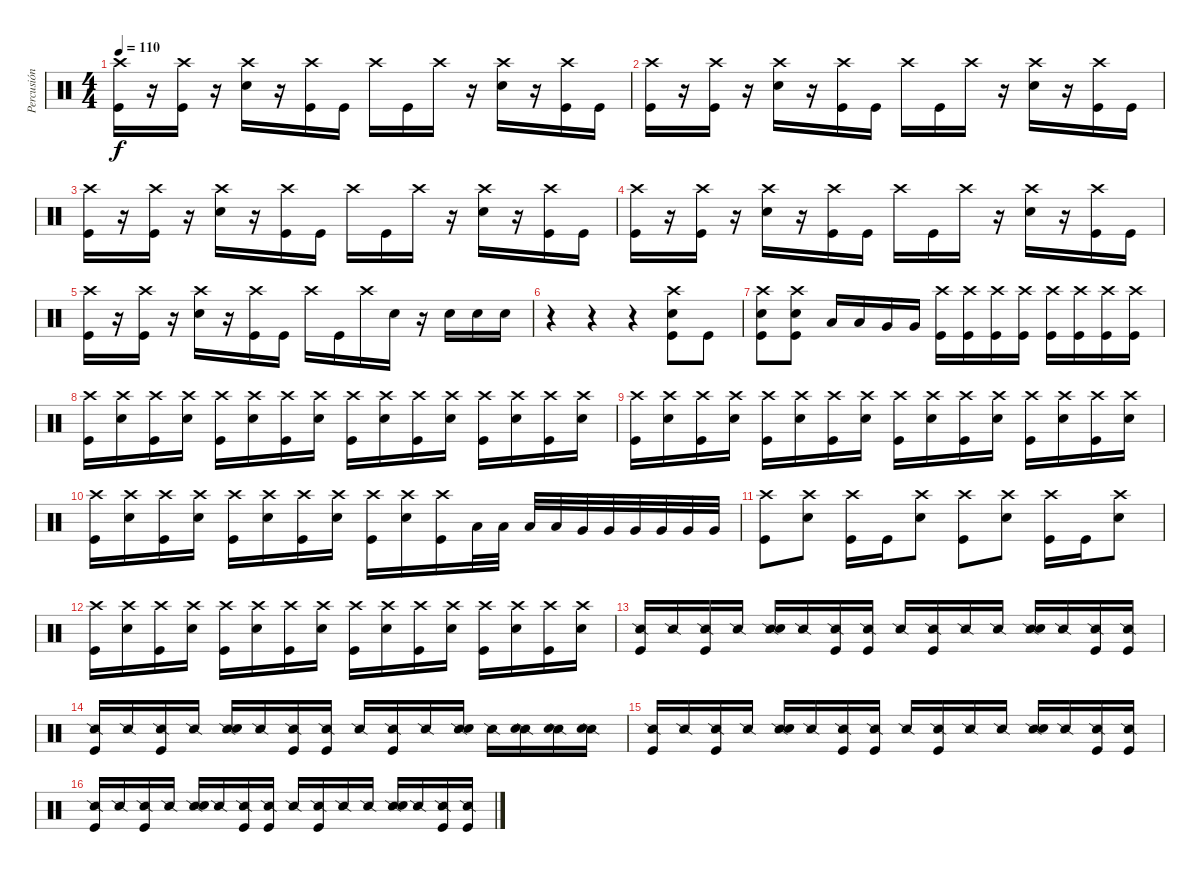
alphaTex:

\track ("Percusión" "Percusión") {instrument percussion}
\staff {score}
\articulation defaults
\ts (4 4)
\tempo 110
\clef neutral
\ks c
("Crash high (hit)" "Kick (hit)").16{dy f} r.16 ("Crash high (hit)" "Kick (hit)").16 r.16 ("Crash high (hit)" "Electric Snare (hit)").16 r.16 ("Crash high (hit)" "Kick (hit)").16 "Kick (hit)".16 "Crash high (hit)".16 "Kick (hit)".16 "Crash high (hit)".16 r.16 ("Crash high (hit)" "Electric Snare (hit)").16 r.16 ("Crash high (hit)" "Kick (hit)").16 "Kick (hit)".16 |
("Crash high (hit)" "Kick (hit)").16 r.16 ("Crash high (hit)" "Kick (hit)").16 r.16 ("Crash high (hit)" "Electric Snare (hit)").16 r.16 ("Crash high (hit)" "Kick (hit)").16 "Kick (hit)".16 "Crash high (hit)".16 "Kick (hit)".16 "Crash high (hit)".16 r.16 ("Crash high (hit)" "Electric Snare (hit)").16 r.16 ("Crash high (hit)" "Kick (hit)").16 "Kick (hit)".16 |
("Crash high (hit)" "Kick (hit)").16 r.16 ("Crash high (hit)" "Kick (hit)").16 r.16 ("Crash high (hit)" "Electric Snare (hit)").16 r.16 ("Crash high (hit)" "Kick (hit)").16 "Kick (hit)".16 "Crash high (hit)".16 "Kick (hit)".16 "Crash high (hit)".16 r.16 ("Crash high (hit)" "Electric Snare (hit)").16 r.16 ("Crash high (hit)" "Kick (hit)").16 "Kick (hit)".16 |
("Crash high (hit)" "Kick (hit)").16 r.16 ("Crash high (hit)" "Kick (hit)").16 r.16 ("Crash high (hit)" "Electric Snare (hit)").16 r.16 ("Crash high (hit)" "Kick (hit)").16 "Kick (hit)".16 "Crash high (hit)".16 "Kick (hit)".16 "Crash high (hit)".16 r.16 ("Crash high (hit)" "Electric Snare (hit)").16 r.16 ("Crash high (hit)" "Kick (hit)").16 "Kick (hit)".16 |
("Crash high (hit)" "Kick (hit)").16 r.16 ("Crash high (hit)" "Kick (hit)").16 r.16 ("Crash high (hit)" "Electric Snare (hit)").16 r.16 ("Crash high (hit)" "Kick (hit)").16 "Kick (hit)".16 "Crash high (hit)".16 "Kick (hit)".16 "Crash high (hit)".16 "Electric Snare (hit)".16 r.16 "Electric Snare (hit)".16 "Electric Snare (hit)".16 "Electric Snare (hit)".16 |
r.4 r.4 r.4 ("Crash high (hit)" "Electric Snare (hit)" "Kick (hit)").8 "Kick (hit)".8 |
("Crash high (hit)" "Electric Snare (hit)" "Kick (hit)").8 ("Crash high (hit)" "Electric Snare (hit)" "Kick (hit)").8 "Low Tom (hit)".16 "Low Tom (hit)".16 "Very Low Tom (hit)".16 "Very Low Tom (hit)".16 ("Crash high (hit)" "Kick (hit)").16 ("Crash high (hit)" "Kick (hit)").16 ("Crash high (hit)" "Kick (hit)").16 ("Crash high (hit)" "Kick (hit)").16 ("Crash high (hit)" "Kick (hit)").16 ("Crash high (hit)" "Kick (hit)").16 ("Crash high (hit)" "Kick (hit)").16 ("Crash high (hit)" "Kick (hit)").16 |
("Crash high (hit)" "Kick (hit)").16 ("Crash high (hit)" "Electric Snare (hit)").16 ("Crash high (hit)" "Kick (hit)").16 ("Crash high (hit)" "Electric Snare (hit)").16 ("Crash high (hit)" "Kick (hit)").16 ("Crash high (hit)" "Electric Snare (hit)").16 ("Crash high (hit)" "Kick (hit)").16 ("Crash high (hit)" "Electric Snare (hit)").16 ("Crash high (hit)" "Kick (hit)").16 ("Crash high (hit)" "Electric Snare (hit)").16 ("Crash high (hit)" "Kick (hit)").16 ("Crash high (hit)" "Electric Snare (hit)").16 ("Crash high (hit)" "Kick (hit)").16 ("Crash high (hit)" "Electric Snare (hit)").16 ("Crash high (hit)" "Kick (hit)").16 ("Crash high (hit)" "Electric Snare (hit)").16 |
("Crash high (hit)" "Kick (hit)").16 ("Crash high (hit)" "Electric Snare (hit)").16 ("Crash high (hit)" "Kick (hit)").16 ("Crash high (hit)" "Electric Snare (hit)").16 ("Crash high (hit)" "Kick (hit)").16 ("Crash high (hit)" "Electric Snare (hit)").16 ("Crash high (hit)" "Kick (hit)").16 ("Crash high (hit)" "Electric Snare (hit)").16 ("Crash high (hit)" "Kick (hit)").16 ("Crash high (hit)" "Electric Snare (hit)").16 ("Crash high (hit)" "Kick (hit)").16 ("Crash high (hit)" "Electric Snare (hit)").16 ("Crash high (hit)" "Kick (hit)").16 ("Crash high (hit)" "Electric Snare (hit)").16 ("Crash high (hit)" "Kick (hit)").16 ("Crash high (hit)" "Electric Snare (hit)").16 |
("Crash high (hit)" "Kick (hit)").16 ("Crash high (hit)" "Electric Snare (hit)").16 ("Crash high (hit)" "Kick (hit)").16 ("Crash high (hit)" "Electric Snare (hit)").16 ("Crash high (hit)" "Kick (hit)").16 ("Crash high (hit)" "Electric Snare (hit)").16 ("Crash high (hit)" "Kick (hit)").16 ("Crash high (hit)" "Electric Snare (hit)").16 ("Crash high (hit)" "Kick (hit)").16 ("Crash high (hit)" "Electric Snare (hit)").16 ("Crash high (hit)" "Kick (hit)").16 "Low Tom (hit)".32 "Low Tom (hit)".32 "Low Tom (hit)".32 "Low Tom (hit)".32 "Very Low Tom (hit)".32 "Very Low Tom (hit)".32 "Very Low Tom (hit)".32 "Very Low Tom (hit)".32 "Very Low Tom (hit)".32 "Very Low Tom (hit)".32 |
("Crash high (hit)" "Kick (hit)").8 ("Crash high (hit)" "Electric Snare (hit)").8 ("Crash high (hit)" "Kick (hit)").16 "Kick (hit)".16 ("Crash high (hit)" "Electric Snare (hit)").8 ("Crash high (hit)" "Kick (hit)").8 ("Crash high (hit)" "Electric Snare (hit)").8 ("Crash high (hit)" "Kick (hit)").16 "Kick (hit)".16 ("Crash high (hit)" "Electric Snare (hit)").8 |
("Crash high (hit)" "Kick (hit)").16 ("Crash high (hit)" "Electric Snare (hit)").16 ("Crash high (hit)" "Kick (hit)").16 ("Crash high (hit)" "Electric Snare (hit)").16 ("Crash high (hit)" "Kick (hit)").16 ("Crash high (hit)" "Electric Snare (hit)").16 ("Crash high (hit)" "Kick (hit)").16 ("Crash high (hit)" "Electric Snare (hit)").16 ("Crash high (hit)" "Kick (hit)").16 ("Crash high (hit)" "Electric Snare (hit)").16 ("Crash high (hit)" "Kick (hit)").16 ("Crash high (hit)" "Electric Snare (hit)").16 ("Crash high (hit)" "Kick (hit)").16 ("Crash high (hit)" "Electric Snare (hit)").16 ("Crash high (hit)" "Kick (hit)").16 ("Crash high (hit)" "Electric Snare (hit)").16 |
("Snare (side stick) 2" "Kick (hit)").16 "Snare (side stick) 2".16 ("Snare (side stick) 2" "Kick (hit)").16 "Snare (side stick) 2".16 ("Snare (side stick) 2" "Electric Snare (hit)").16 "Snare (side stick) 2".16 ("Snare (side stick) 2" "Kick (hit)").16 ("Snare (side stick) 2" "Kick (hit)").16 "Snare (side stick) 2".16 ("Snare (side stick) 2" "Kick (hit)").16 "Snare (side stick) 2".16 "Snare (side stick) 2".16 ("Snare (side stick) 2" "Electric Snare (hit)").16 "Snare (side stick) 2".16 ("Snare (side stick) 2" "Kick (hit)").16 ("Snare (side stick) 2" "Kick (hit)").16 |
("Snare (side stick) 2" "Kick (hit)").16 "Snare (side stick) 2".16 ("Snare (side stick) 2" "Kick (hit)").16 "Snare (side stick) 2".16 ("Snare (side stick) 2" "Electric Snare (hit)").16 "Snare (side stick) 2".16 ("Snare (side stick) 2" "Kick (hit)").16 ("Snare (side stick) 2" "Kick (hit)").16 "Snare (side stick) 2".16 ("Snare (side stick) 2" "Kick (hit)").16 "Snare (side stick) 2".16 ("Snare (side stick) 2" "Electric Snare (hit)").16 "Snare (side stick) 2".16 ("Snare (side stick) 2" "Electric Snare (hit)").16 ("Snare (side stick) 2" "Electric Snare (hit)").16 ("Snare (side stick) 2" "Electric Snare (hit)").16 |
("Snare (side stick) 2" "Kick (hit)").16 "Snare (side stick) 2".16 ("Snare (side stick) 2" "Kick (hit)").16 "Snare (side stick) 2".16 ("Snare (side stick) 2" "Electric Snare (hit)").16 "Snare (side stick) 2".16 ("Snare (side stick) 2" "Kick (hit)").16 ("Snare (side stick) 2" "Kick (hit)").16 "Snare (side stick) 2".16 ("Snare (side stick) 2" "Kick (hit)").16 "Snare (side stick) 2".16 "Snare (side stick) 2".16 ("Snare (side stick) 2" "Electric Snare (hit)").16 "Snare (side stick) 2".16 ("Snare (side stick) 2" "Kick (hit)").16 ("Snare (side stick) 2" "Kick (hit)").16 |
("Snare (side stick) 2" "Kick (hit)").16 "Snare (side stick) 2".16 ("Snare (side stick) 2" "Kick (hit)").16 "Snare (side stick) 2".16 ("Snare (side stick) 2" "Electric Snare (hit)").16 "Snare (side stick) 2".16 ("Snare (side stick) 2" "Kick (hit)").16 ("Snare (side stick) 2" "Kick (hit)").16 "Snare (side stick) 2".16 ("Snare (side stick) 2" "Kick (hit)").16 "Snare (side stick) 2".16 "Snare (side stick) 2".16 ("Snare (side stick) 2" "Electric Snare (hit)").16 "Snare (side stick) 2".16 ("Snare (side stick) 2" "Kick (hit)").16 ("Snare (side stick) 2" "Kick (hit)").16
